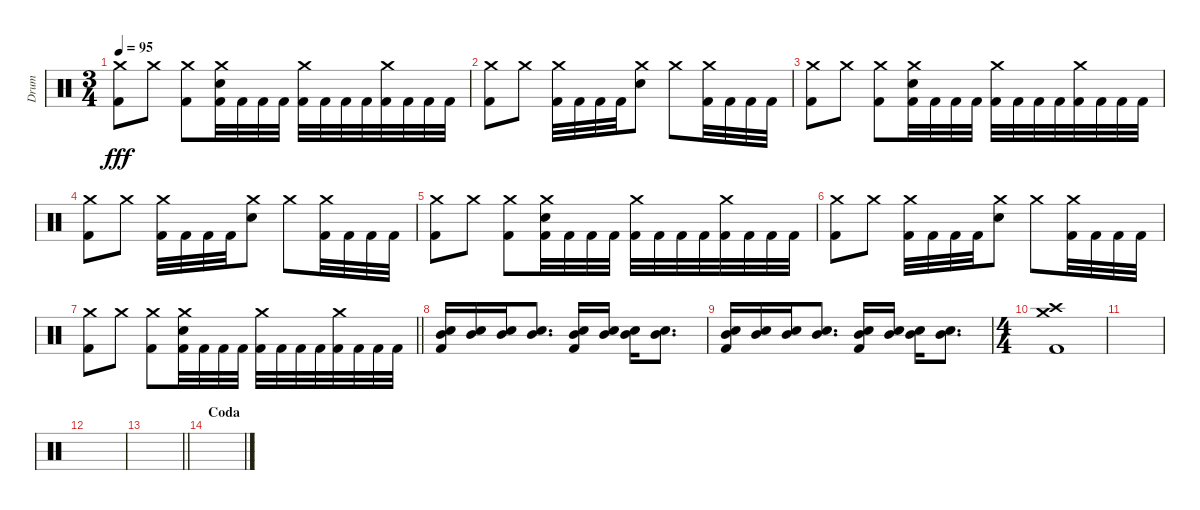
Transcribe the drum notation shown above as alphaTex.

\track ("Drum" "Drum") {instrument percussion}
\staff {score}
\articulation defaults
\ts (3 4)
\tempo 95
\clef neutral
\ks c
("Crash medium (hit)" "Kick (hit) 2").8{dy fff} "Crash medium (hit)".8 ("Crash medium (hit)" "Kick (hit) 2").8 ("Crash medium (hit)" "Electric Snare (hit)" "Kick (hit) 2").32 "Kick (hit) 2".32 "Kick (hit) 2".32 "Kick (hit) 2".32 ("Crash medium (hit)" "Kick (hit) 2").32 "Kick (hit) 2".32 "Kick (hit) 2".32 "Kick (hit) 2".32 ("Crash medium (hit)" "Kick (hit) 2").32 "Kick (hit) 2".32 "Kick (hit) 2".32 "Kick (hit) 2".32 |
("Crash medium (hit)" "Kick (hit) 2").8 "Crash medium (hit)".8 ("Crash medium (hit)" "Kick (hit) 2").32 "Kick (hit) 2".32 "Kick (hit) 2".32 "Kick (hit) 2".32 ("Crash medium (hit)" "Electric Snare (hit)").8 "Crash medium (hit)".8 ("Crash medium (hit)" "Kick (hit) 2").32 "Kick (hit) 2".32 "Kick (hit) 2".32 "Kick (hit) 2".32 |
("Crash medium (hit)" "Kick (hit) 2").8 "Crash medium (hit)".8 ("Crash medium (hit)" "Kick (hit) 2").8 ("Crash medium (hit)" "Electric Snare (hit)" "Kick (hit) 2").32 "Kick (hit) 2".32 "Kick (hit) 2".32 "Kick (hit) 2".32 ("Crash medium (hit)" "Kick (hit) 2").32 "Kick (hit) 2".32 "Kick (hit) 2".32 "Kick (hit) 2".32 ("Crash medium (hit)" "Kick (hit) 2").32 "Kick (hit) 2".32 "Kick (hit) 2".32 "Kick (hit) 2".32 |
("Crash medium (hit)" "Kick (hit) 2").8 "Crash medium (hit)".8 ("Crash medium (hit)" "Kick (hit) 2").32 "Kick (hit) 2".32 "Kick (hit) 2".32 "Kick (hit) 2".32 ("Crash medium (hit)" "Electric Snare (hit)").8 "Crash medium (hit)".8 ("Crash medium (hit)" "Kick (hit) 2").32 "Kick (hit) 2".32 "Kick (hit) 2".32 "Kick (hit) 2".32 |
("Crash medium (hit)" "Kick (hit) 2").8 "Crash medium (hit)".8 ("Crash medium (hit)" "Kick (hit) 2").8 ("Crash medium (hit)" "Electric Snare (hit)" "Kick (hit) 2").32 "Kick (hit) 2".32 "Kick (hit) 2".32 "Kick (hit) 2".32 ("Crash medium (hit)" "Kick (hit) 2").32 "Kick (hit) 2".32 "Kick (hit) 2".32 "Kick (hit) 2".32 ("Crash medium (hit)" "Kick (hit) 2").32 "Kick (hit) 2".32 "Kick (hit) 2".32 "Kick (hit) 2".32 |
("Crash medium (hit)" "Kick (hit) 2").8 "Crash medium (hit)".8 ("Crash medium (hit)" "Kick (hit) 2").32 "Kick (hit) 2".32 "Kick (hit) 2".32 "Kick (hit) 2".32 ("Crash medium (hit)" "Electric Snare (hit)").8 "Crash medium (hit)".8 ("Crash medium (hit)" "Kick (hit) 2").32 "Kick (hit) 2".32 "Kick (hit) 2".32 "Kick (hit) 2".32 |
\barLineRight lightlight
("Crash medium (hit)" "Kick (hit) 2").8 "Crash medium (hit)".8 ("Crash medium (hit)" "Kick (hit) 2").8 ("Crash medium (hit)" "Electric Snare (hit)" "Kick (hit) 2").32 "Kick (hit) 2".32 "Kick (hit) 2".32 "Kick (hit) 2".32 ("Crash medium (hit)" "Kick (hit) 2").32 "Kick (hit) 2".32 "Kick (hit) 2".32 "Kick (hit) 2".32 ("Crash medium (hit)" "Kick (hit) 2").32 "Kick (hit) 2".32 "Kick (hit) 2".32 "Kick (hit) 2".32 |
("Electric Snare (hit)" "Mid Tom (hit)" "Kick (hit) 2").16 ("Electric Snare (hit)" "Mid Tom (hit)").16 ("Electric Snare (hit)" "Mid Tom (hit)").16 ("Electric Snare (hit)" "Mid Tom (hit)").8{d} ("Electric Snare (hit)" "Mid Tom (hit)" "Kick (hit) 2").16 ("Electric Snare (hit)" "Mid Tom (hit)").16 ("Electric Snare (hit)" "Mid Tom (hit)").16 ("Electric Snare (hit)" "Mid Tom (hit)").8{d} |
("Electric Snare (hit)" "Mid Tom (hit)" "Kick (hit) 2").16 ("Electric Snare (hit)" "Mid Tom (hit)").16 ("Electric Snare (hit)" "Mid Tom (hit)").16 ("Electric Snare (hit)" "Mid Tom (hit)").8{d} ("Electric Snare (hit)" "Mid Tom (hit)" "Kick (hit) 2").16 ("Electric Snare (hit)" "Mid Tom (hit)").16 ("Electric Snare (hit)" "Mid Tom (hit)").16 ("Electric Snare (hit)" "Mid Tom (hit)").8{d} |
\ts (4 4)
("Crash medium (hit)" "Crash high (hit)" "Kick (hit) 2").1 |
|
|
\barLineRight lightlight
|
\section ("" "Coda")
